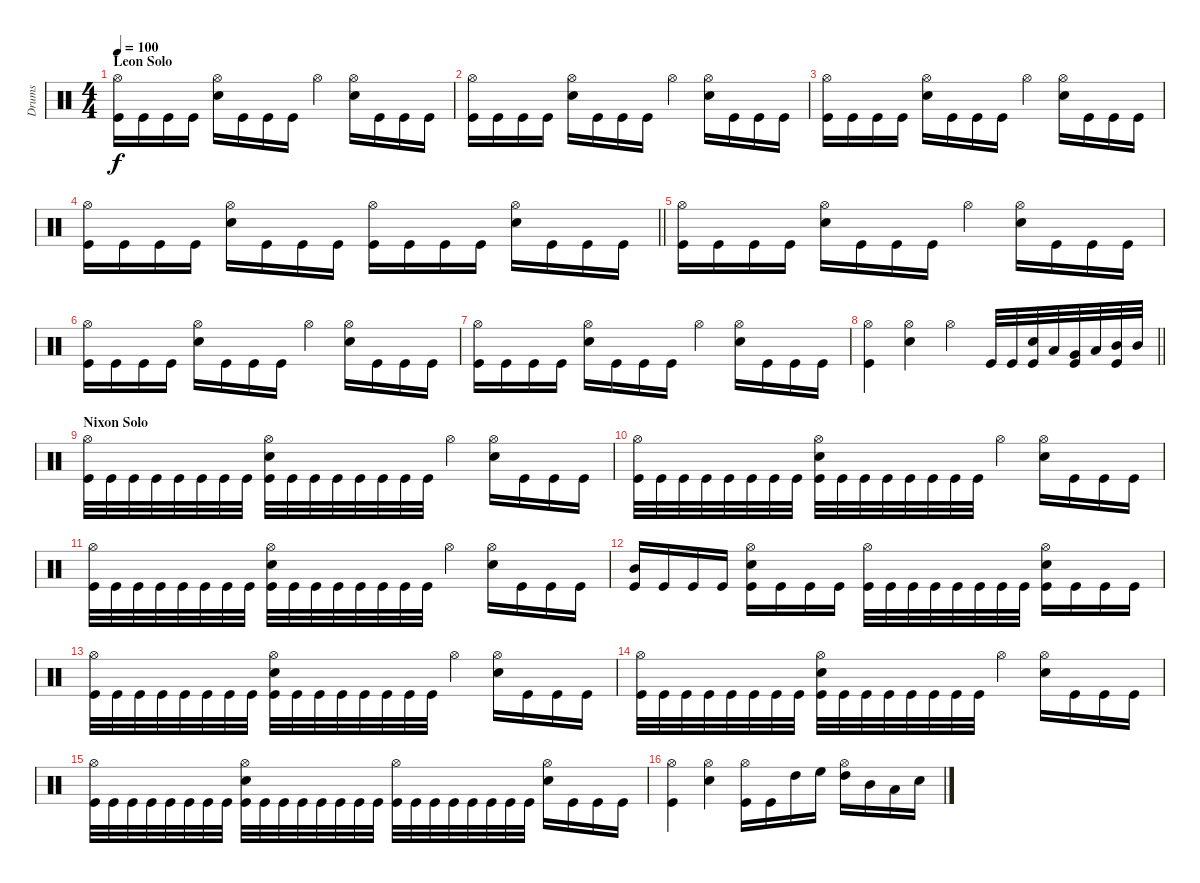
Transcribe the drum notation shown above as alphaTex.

\track ("Drums" "Drums") {instrument percussion}
\staff {score}
\articulation defaults
\ts (4 4)
\section ("" "Leon Solo")
\tempo 100
\clef neutral
\ks c
("Hi-Hat (open)" "Kick (hit)").16{dy f} "Kick (hit)".16 "Kick (hit)".16 "Kick (hit)".16 ("Hi-Hat (open)" "Electric Snare (hit)").16 "Kick (hit)".16 "Kick (hit)".16 "Kick (hit)".16 "Hi-Hat (open)".4 ("Hi-Hat (open)" "Electric Snare (hit)").16 "Kick (hit)".16 "Kick (hit)".16 "Kick (hit)".16 |
("Hi-Hat (open)" "Kick (hit)").16 "Kick (hit)".16 "Kick (hit)".16 "Kick (hit)".16 ("Hi-Hat (open)" "Electric Snare (hit)").16 "Kick (hit)".16 "Kick (hit)".16 "Kick (hit)".16 "Hi-Hat (open)".4 ("Hi-Hat (open)" "Electric Snare (hit)").16 "Kick (hit)".16 "Kick (hit)".16 "Kick (hit)".16 |
("Hi-Hat (open)" "Kick (hit)").16 "Kick (hit)".16 "Kick (hit)".16 "Kick (hit)".16 ("Hi-Hat (open)" "Electric Snare (hit)").16 "Kick (hit)".16 "Kick (hit)".16 "Kick (hit)".16 "Hi-Hat (open)".4 ("Hi-Hat (open)" "Electric Snare (hit)").16 "Kick (hit)".16 "Kick (hit)".16 "Kick (hit)".16 |
\barLineRight lightlight
("Hi-Hat (open)" "Kick (hit)").16 "Kick (hit)".16 "Kick (hit)".16 "Kick (hit)".16 ("Hi-Hat (open)" "Electric Snare (hit)").16 "Kick (hit)".16 "Kick (hit)".16 "Kick (hit)".16 ("Hi-Hat (open)" "Kick (hit)").16 "Kick (hit)".16 "Kick (hit)".16 "Kick (hit)".16 ("Hi-Hat (open)" "Electric Snare (hit)").16 "Kick (hit)".16 "Kick (hit)".16 "Kick (hit)".16 |
("Hi-Hat (open)" "Kick (hit)").16 "Kick (hit)".16 "Kick (hit)".16 "Kick (hit)".16 ("Hi-Hat (open)" "Electric Snare (hit)").16 "Kick (hit)".16 "Kick (hit)".16 "Kick (hit)".16 "Hi-Hat (open)".4 ("Hi-Hat (open)" "Electric Snare (hit)").16 "Kick (hit)".16 "Kick (hit)".16 "Kick (hit)".16 |
("Hi-Hat (open)" "Kick (hit)").16 "Kick (hit)".16 "Kick (hit)".16 "Kick (hit)".16 ("Hi-Hat (open)" "Electric Snare (hit)").16 "Kick (hit)".16 "Kick (hit)".16 "Kick (hit)".16 "Hi-Hat (open)".4 ("Hi-Hat (open)" "Electric Snare (hit)").16 "Kick (hit)".16 "Kick (hit)".16 "Kick (hit)".16 |
("Hi-Hat (open)" "Kick (hit)").16 "Kick (hit)".16 "Kick (hit)".16 "Kick (hit)".16 ("Hi-Hat (open)" "Electric Snare (hit)").16 "Kick (hit)".16 "Kick (hit)".16 "Kick (hit)".16 "Hi-Hat (open)".4 ("Hi-Hat (open)" "Electric Snare (hit)").16 "Kick (hit)".16 "Kick (hit)".16 "Kick (hit)".16 |
\barLineRight lightlight
("Hi-Hat (open)" "Kick (hit)").4 ("Hi-Hat (open)" "Electric Snare (hit)").4 "Hi-Hat (open)".4 "Kick (hit)".32 "Kick (hit)".32 ("Electric Snare (hit)" "Kick (hit)").32 "Low Tom (hit)".32 ("Very Low Tom (hit)" "Kick (hit)").32 "Low Tom (hit)".32 ("Mid Tom (hit)" "Kick (hit)").32 "Mid Tom (hit)".32 |
\section ("" "Nixon Solo")
("Hi-Hat (open)" "Kick (hit)").32 "Kick (hit)".32 "Kick (hit)".32 "Kick (hit)".32 "Kick (hit)".32 "Kick (hit)".32 "Kick (hit)".32 "Kick (hit)".32 ("Hi-Hat (open)" "Electric Snare (hit)" "Kick (hit)").32 "Kick (hit)".32 "Kick (hit)".32 "Kick (hit)".32 "Kick (hit)".32 "Kick (hit)".32 "Kick (hit)".32 "Kick (hit)".32 "Hi-Hat (open)".4 ("Hi-Hat (open)" "Electric Snare (hit)").16 "Kick (hit)".16 "Kick (hit)".16 "Kick (hit)".16 |
("Hi-Hat (open)" "Kick (hit)").32 "Kick (hit)".32 "Kick (hit)".32 "Kick (hit)".32 "Kick (hit)".32 "Kick (hit)".32 "Kick (hit)".32 "Kick (hit)".32 ("Hi-Hat (open)" "Electric Snare (hit)" "Kick (hit)").32 "Kick (hit)".32 "Kick (hit)".32 "Kick (hit)".32 "Kick (hit)".32 "Kick (hit)".32 "Kick (hit)".32 "Kick (hit)".32 "Hi-Hat (open)".4 ("Hi-Hat (open)" "Electric Snare (hit)").16 "Kick (hit)".16 "Kick (hit)".16 "Kick (hit)".16 |
("Hi-Hat (open)" "Kick (hit)").32 "Kick (hit)".32 "Kick (hit)".32 "Kick (hit)".32 "Kick (hit)".32 "Kick (hit)".32 "Kick (hit)".32 "Kick (hit)".32 ("Hi-Hat (open)" "Electric Snare (hit)" "Kick (hit)").32 "Kick (hit)".32 "Kick (hit)".32 "Kick (hit)".32 "Kick (hit)".32 "Kick (hit)".32 "Kick (hit)".32 "Kick (hit)".32 "Hi-Hat (open)".4 ("Hi-Hat (open)" "Electric Snare (hit)").16 "Kick (hit)".16 "Kick (hit)".16 "Kick (hit)".16 |
("Mid Tom (hit)" "Kick (hit)").16 "Kick (hit)".16 "Kick (hit)".16 "Kick (hit)".16 ("Hi-Hat (open)" "Electric Snare (hit)" "Kick (hit)").16 "Kick (hit)".16 "Kick (hit)".16 "Kick (hit)".16 ("Hi-Hat (open)" "Kick (hit)").32 "Kick (hit)".32 "Kick (hit)".32 "Kick (hit)".32 "Kick (hit)".32 "Kick (hit)".32 "Kick (hit)".32 "Kick (hit)".32 ("Hi-Hat (open)" "Electric Snare (hit)" "Kick (hit)").16 "Kick (hit)".16 "Kick (hit)".16 "Kick (hit)".16 |
("Hi-Hat (open)" "Kick (hit)").32 "Kick (hit)".32 "Kick (hit)".32 "Kick (hit)".32 "Kick (hit)".32 "Kick (hit)".32 "Kick (hit)".32 "Kick (hit)".32 ("Hi-Hat (open)" "Electric Snare (hit)" "Kick (hit)").32 "Kick (hit)".32 "Kick (hit)".32 "Kick (hit)".32 "Kick (hit)".32 "Kick (hit)".32 "Kick (hit)".32 "Kick (hit)".32 "Hi-Hat (open)".4 ("Hi-Hat (open)" "Electric Snare (hit)").16 "Kick (hit)".16 "Kick (hit)".16 "Kick (hit)".16 |
("Hi-Hat (open)" "Kick (hit)").32 "Kick (hit)".32 "Kick (hit)".32 "Kick (hit)".32 "Kick (hit)".32 "Kick (hit)".32 "Kick (hit)".32 "Kick (hit)".32 ("Hi-Hat (open)" "Electric Snare (hit)" "Kick (hit)").32 "Kick (hit)".32 "Kick (hit)".32 "Kick (hit)".32 "Kick (hit)".32 "Kick (hit)".32 "Kick (hit)".32 "Kick (hit)".32 "Hi-Hat (open)".4 ("Hi-Hat (open)" "Electric Snare (hit)").16 "Kick (hit)".16 "Kick (hit)".16 "Kick (hit)".16 |
("Hi-Hat (open)" "Kick (hit)").32 "Kick (hit)".32 "Kick (hit)".32 "Kick (hit)".32 "Kick (hit)".32 "Kick (hit)".32 "Kick (hit)".32 "Kick (hit)".32 ("Hi-Hat (open)" "Electric Snare (hit)" "Kick (hit)").32 "Kick (hit)".32 "Kick (hit)".32 "Kick (hit)".32 "Kick (hit)".32 "Kick (hit)".32 "Kick (hit)".32 "Kick (hit)".32 ("Hi-Hat (open)" "Kick (hit)").32 "Kick (hit)".32 "Kick (hit)".32 "Kick (hit)".32 "Kick (hit)".32 "Kick (hit)".32 "Kick (hit)".32 "Kick (hit)".32 ("Hi-Hat (open)" "Electric Snare (hit)").16 "Kick (hit)".16 "Kick (hit)".16 "Kick (hit)".16 |
("Hi-Hat (open)" "Kick (hit)").4 ("Hi-Hat (open)" "Electric Snare (hit)").4 ("Hi-Hat (open)" "Kick (hit)").16 "Kick (hit)".16 "High Tom (hit)".16 "High Floor Tom (hit)".16 ("Hi-Hat (open)" "High Tom (hit)").16 "Mid Tom (hit)".16 "Low Tom (hit)".16 "Electric Snare (hit)".16
